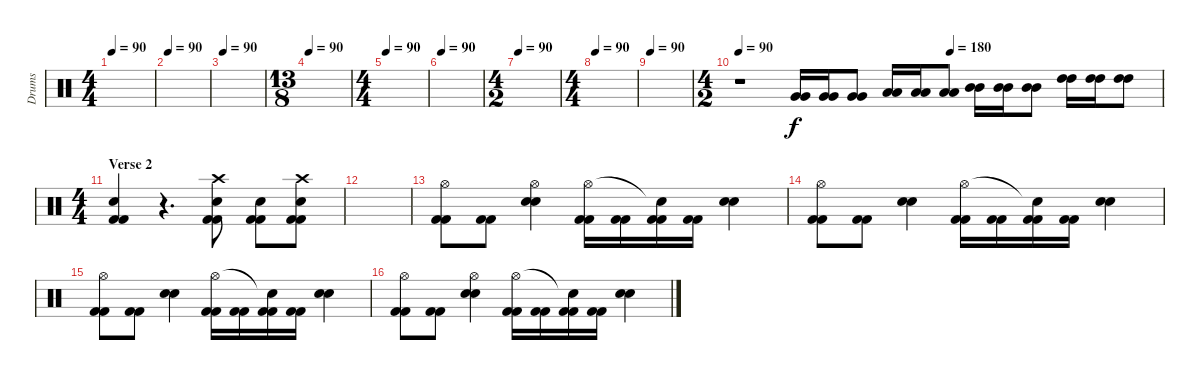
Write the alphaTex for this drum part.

\track ("Drums" "Drums") {instrument percussion}
\staff {score}
\articulation defaults
\ts (4 4)
\tempo 90
\clef neutral
\ks c
|
\tempo 90
|
\tempo 90
|
\ts (13 8)
\tempo 90
|
\ts (4 4)
\tempo 90
|
\tempo 90
|
\ts (4 2)
\tempo 90
|
\ts (4 4)
\tempo 90
|
\tempo 90
|
\ts (4 2)
\tempo 90
\tempo (180 0.5)
r.1 ("Very Low Tom (hit)" "Very Low Tom (hit)").16 ("Very Low Tom (hit)" "Very Low Tom (hit)").16 ("Very Low Tom (hit)" "Very Low Tom (hit)").8 ("Low Tom (hit)" "Low Tom (hit)").16 ("Low Tom (hit)" "Low Tom (hit)").16 ("Low Tom (hit)" "Low Tom (hit)").8 ("Mid Tom (hit)" "Mid Tom (hit)").16 ("Mid Tom (hit)" "Mid Tom (hit)").16 ("Mid Tom (hit)" "Mid Tom (hit)").8 ("High Tom (hit)" "High Tom (hit)").16 ("High Tom (hit)" "High Tom (hit)").16 ("High Tom (hit)" "High Tom (hit)").8 |
\ts (4 4)
\section ("" "Verse 2")
("Snare (hit) 2" "Kick (hit) 2" "Kick (hit) 2").4 r.4{d} ("Crash high (hit)" "Snare (hit) 2" "Kick (hit) 2" "Kick (hit) 2").8 ("Electric Snare (hit)" "Kick (hit) 2" "Kick (hit) 2").8 ("Crash high (hit)" "Snare (hit) 2" "Kick (hit) 2" "Kick (hit) 2").8 |
|
("Kick (hit) 2" "Kick (hit) 2" "Hi-Hat (open)").8 ("Kick (hit) 2" "Kick (hit) 2").8 ("Electric Snare (hit)" "Electric Snare (hit)" "Hi-Hat (open)").4 ("Kick (hit) 2" "Kick (hit) 2" "Hi-Hat (open)").16 ("Kick (hit) 2" "Kick (hit) 2").16 ("Kick (hit) 2" "Kick (hit) 2" "Snare (hit)"{t}).16 ("Kick (hit) 2" "Kick (hit) 2").16 ("Electric Snare (hit)" "Electric Snare (hit)").4 |
("Kick (hit) 2" "Kick (hit) 2" "Hi-Hat (open)").8 ("Kick (hit) 2" "Kick (hit) 2").8 ("Electric Snare (hit)" "Electric Snare (hit)").4 ("Kick (hit) 2" "Kick (hit) 2" "Hi-Hat (open)").16 ("Kick (hit) 2" "Kick (hit) 2").16 ("Kick (hit) 2" "Kick (hit) 2" "Snare (hit)"{t}).16 ("Kick (hit) 2" "Kick (hit) 2").16 ("Electric Snare (hit)" "Electric Snare (hit)").4 |
("Kick (hit) 2" "Kick (hit) 2" "Hi-Hat (open)").8 ("Kick (hit) 2" "Kick (hit) 2").8 ("Electric Snare (hit)" "Electric Snare (hit)").4 ("Kick (hit) 2" "Kick (hit) 2" "Hi-Hat (open)").16 ("Kick (hit) 2" "Kick (hit) 2").16 ("Kick (hit) 2" "Kick (hit) 2" "Snare (hit)"{t}).16 ("Kick (hit) 2" "Kick (hit) 2").16 ("Electric Snare (hit)" "Electric Snare (hit)").4 |
("Kick (hit) 2" "Kick (hit) 2" "Hi-Hat (open)").8 ("Kick (hit) 2" "Kick (hit) 2").8 ("Electric Snare (hit)" "Electric Snare (hit)" "Hi-Hat (open)").4 ("Kick (hit) 2" "Kick (hit) 2" "Hi-Hat (open)").16 ("Kick (hit) 2" "Kick (hit) 2").16 ("Kick (hit) 2" "Kick (hit) 2" "Snare (hit)"{t}).16 ("Kick (hit) 2" "Kick (hit) 2").16 ("Electric Snare (hit)" "Electric Snare (hit)").4
